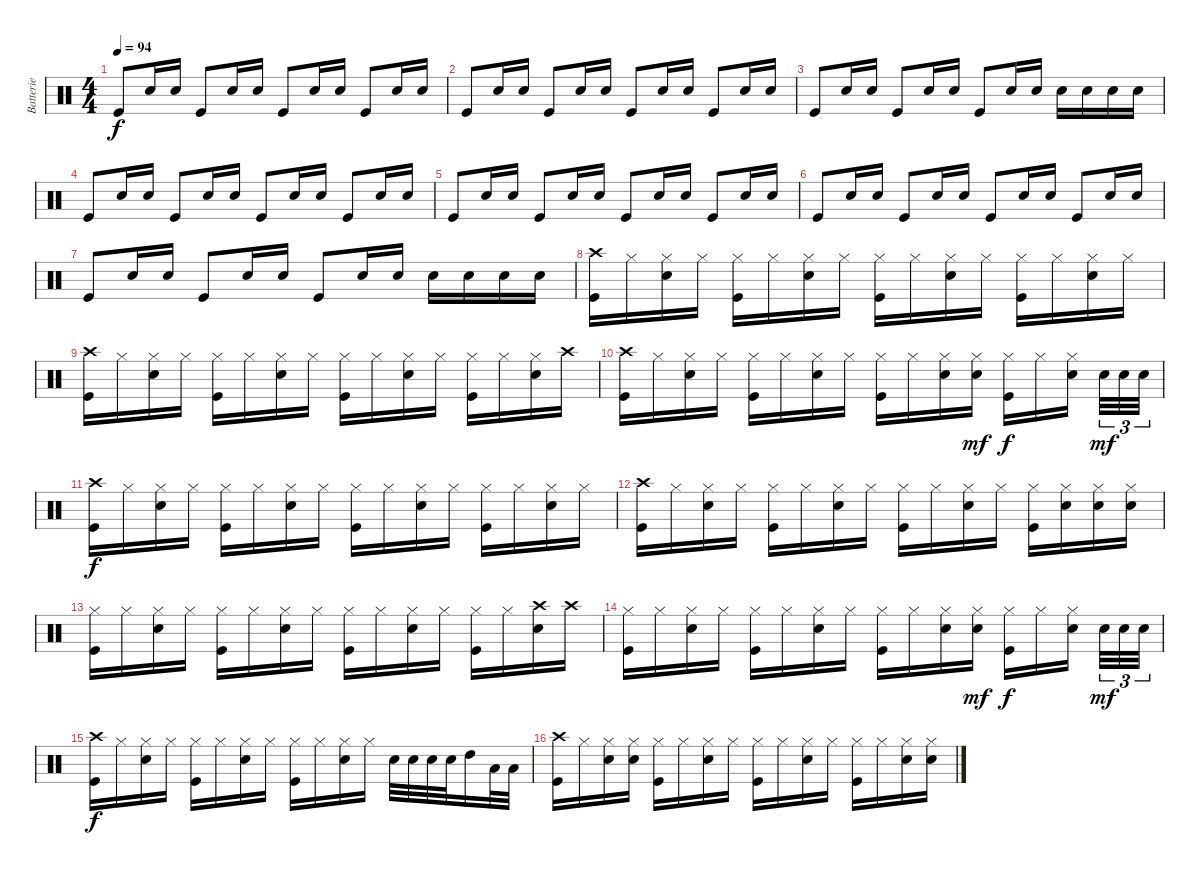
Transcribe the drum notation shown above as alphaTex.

\track ("Batterie" "Batterie") {instrument percussion}
\staff {score}
\articulation defaults
\ts (4 4)
\tempo 94
\clef neutral
\ks c "Kick (hit)".8{dy f} "Snare (hit) 2".16 "Snare (hit) 2".16 "Kick (hit)".8 "Snare (hit) 2".16 "Snare (hit) 2".16 "Kick (hit)".8 "Snare (hit) 2".16 "Snare (hit) 2".16 "Kick (hit)".8 "Snare (hit) 2".16 "Snare (hit) 2".16
|
"Kick (hit)".8 "Snare (hit) 2".16 "Snare (hit) 2".16 "Kick (hit)".8 "Snare (hit) 2".16 "Snare (hit) 2".16 "Kick (hit)".8 "Snare (hit) 2".16 "Snare (hit) 2".16 "Kick (hit)".8 "Snare (hit) 2".16 "Snare (hit) 2".16 |
"Kick (hit)".8 "Snare (hit) 2".16 "Snare (hit) 2".16 "Kick (hit)".8 "Snare (hit) 2".16 "Snare (hit) 2".16 "Kick (hit)".8 "Snare (hit) 2".16 "Snare (hit) 2".16 "Snare (hit) 2".16 "Snare (hit) 2".16 "Snare (hit) 2".16 "Snare (hit) 2".16 |
"Kick (hit)".8 "Snare (hit) 2".16 "Snare (hit) 2".16 "Kick (hit)".8 "Snare (hit) 2".16 "Snare (hit) 2".16 "Kick (hit)".8 "Snare (hit) 2".16 "Snare (hit) 2".16 "Kick (hit)".8 "Snare (hit) 2".16 "Snare (hit) 2".16 |
"Kick (hit)".8 "Snare (hit) 2".16 "Snare (hit) 2".16 "Kick (hit)".8 "Snare (hit) 2".16 "Snare (hit) 2".16 "Kick (hit)".8 "Snare (hit) 2".16 "Snare (hit) 2".16 "Kick (hit)".8 "Snare (hit) 2".16 "Snare (hit) 2".16 |
"Kick (hit)".8 "Snare (hit) 2".16 "Snare (hit) 2".16 "Kick (hit)".8 "Snare (hit) 2".16 "Snare (hit) 2".16 "Kick (hit)".8 "Snare (hit) 2".16 "Snare (hit) 2".16 "Kick (hit)".8 "Snare (hit) 2".16 "Snare (hit) 2".16 |
"Kick (hit)".8 "Snare (hit) 2".16 "Snare (hit) 2".16 "Kick (hit)".8 "Snare (hit) 2".16 "Snare (hit) 2".16 "Kick (hit)".8 "Snare (hit) 2".16 "Snare (hit) 2".16 "Snare (hit) 2".16 "Snare (hit) 2".16 "Snare (hit) 2".16 "Snare (hit) 2".16 |
("Crash high (hit)" "Kick (hit)").16 "Hi-Hat (closed)".16 ("Hi-Hat (closed)" "Snare (hit) 2").16 "Hi-Hat (closed)".16 ("Hi-Hat (closed)" "Kick (hit)").16 "Hi-Hat (closed)".16 ("Hi-Hat (closed)" "Snare (hit) 2").16 "Hi-Hat (closed)".16 ("Hi-Hat (closed)" "Kick (hit)").16 "Hi-Hat (closed)".16 ("Hi-Hat (closed)" "Snare (hit) 2").16 "Hi-Hat (closed)".16 ("Hi-Hat (closed)" "Kick (hit)").16 "Hi-Hat (closed)".16 ("Hi-Hat (closed)" "Snare (hit) 2").16 "Hi-Hat (closed)".16 |
("Crash high (hit)" "Kick (hit)").16 "Hi-Hat (closed)".16 ("Hi-Hat (closed)" "Snare (hit) 2").16 "Hi-Hat (closed)".16 ("Hi-Hat (closed)" "Kick (hit)").16 "Hi-Hat (closed)".16 ("Hi-Hat (closed)" "Snare (hit) 2").16 "Hi-Hat (closed)".16 ("Hi-Hat (closed)" "Kick (hit)").16 "Hi-Hat (closed)".16 ("Hi-Hat (closed)" "Snare (hit) 2").16 "Hi-Hat (closed)".16 ("Hi-Hat (closed)" "Kick (hit)").16 "Hi-Hat (closed)".16 ("Hi-Hat (closed)" "Snare (hit) 2").16 "Crash high (hit)".16 |
("Crash high (hit)" "Kick (hit)").16 "Hi-Hat (closed)".16 ("Hi-Hat (closed)" "Snare (hit) 2").16 "Hi-Hat (closed)".16 ("Hi-Hat (closed)" "Kick (hit)").16 "Hi-Hat (closed)".16 ("Hi-Hat (closed)" "Snare (hit) 2").16 "Hi-Hat (closed)".16 ("Hi-Hat (closed)" "Kick (hit)").16 "Hi-Hat (closed)".16 ("Hi-Hat (closed)" "Snare (hit) 2").16 ("Hi-Hat (closed)" "Snare (hit) 2").16{dy mf} ("Hi-Hat (closed)" "Kick (hit)").16{dy f} "Hi-Hat (closed)".16 ("Hi-Hat (closed)" "Snare (hit) 2").16 "Snare (hit) 2".32{tu (3 2) dy mf} "Snare (hit) 2".32{tu (3 2)} "Snare (hit) 2".32{tu (3 2)} |
("Crash high (hit)" "Kick (hit)").16{dy f} "Hi-Hat (closed)".16 ("Hi-Hat (closed)" "Snare (hit) 2").16 "Hi-Hat (closed)".16 ("Hi-Hat (closed)" "Kick (hit)").16 "Hi-Hat (closed)".16 ("Hi-Hat (closed)" "Snare (hit) 2").16 "Hi-Hat (closed)".16 ("Hi-Hat (closed)" "Kick (hit)").16 "Hi-Hat (closed)".16 ("Hi-Hat (closed)" "Snare (hit) 2").16 "Hi-Hat (closed)".16 ("Hi-Hat (closed)" "Kick (hit)").16 "Hi-Hat (closed)".16 ("Hi-Hat (closed)" "Snare (hit) 2").16 "Hi-Hat (closed)".16 |
("Crash high (hit)" "Kick (hit)").16 "Hi-Hat (closed)".16 ("Hi-Hat (closed)" "Snare (hit) 2").16 "Hi-Hat (closed)".16 ("Hi-Hat (closed)" "Kick (hit)").16 "Hi-Hat (closed)".16 ("Hi-Hat (closed)" "Snare (hit) 2").16 "Hi-Hat (closed)".16 ("Hi-Hat (closed)" "Kick (hit)").16 "Hi-Hat (closed)".16 ("Hi-Hat (closed)" "Snare (hit) 2").16 "Hi-Hat (closed)".16 ("Hi-Hat (closed)" "Kick (hit)").16 ("Hi-Hat (closed)" "Snare (hit) 2").16 ("Hi-Hat (closed)" "Snare (hit) 2").16 ("Hi-Hat (closed)" "Snare (hit) 2").16 |
("Hi-Hat (closed)" "Kick (hit)").16 "Hi-Hat (closed)".16 ("Hi-Hat (closed)" "Snare (hit) 2").16 "Hi-Hat (closed)".16 ("Hi-Hat (closed)" "Kick (hit)").16 "Hi-Hat (closed)".16 ("Hi-Hat (closed)" "Snare (hit) 2").16 "Hi-Hat (closed)".16 ("Hi-Hat (closed)" "Kick (hit)").16 "Hi-Hat (closed)".16 ("Hi-Hat (closed)" "Snare (hit) 2").16 "Hi-Hat (closed)".16 ("Hi-Hat (closed)" "Kick (hit)").16 "Hi-Hat (closed)".16 ("Crash high (hit)" "Snare (hit) 2").16 "Crash high (hit)".16 |
("Hi-Hat (closed)" "Kick (hit)").16 "Hi-Hat (closed)".16 ("Hi-Hat (closed)" "Snare (hit) 2").16 "Hi-Hat (closed)".16 ("Hi-Hat (closed)" "Kick (hit)").16 "Hi-Hat (closed)".16 ("Hi-Hat (closed)" "Snare (hit) 2").16 "Hi-Hat (closed)".16 ("Hi-Hat (closed)" "Kick (hit)").16 "Hi-Hat (closed)".16 ("Hi-Hat (closed)" "Snare (hit) 2").16 ("Hi-Hat (closed)" "Snare (hit) 2").16{dy mf} ("Hi-Hat (closed)" "Kick (hit)").16{dy f} "Hi-Hat (closed)".16 ("Hi-Hat (closed)" "Snare (hit) 2").16 "Snare (hit) 2".32{tu (3 2) dy mf} "Snare (hit) 2".32{tu (3 2)} "Snare (hit) 2".32{tu (3 2)} |
("Crash high (hit)" "Kick (hit)").16{dy f} "Hi-Hat (closed)".16 ("Hi-Hat (closed)" "Snare (hit) 2").16 "Hi-Hat (closed)".16 ("Hi-Hat (closed)" "Kick (hit)").16 "Hi-Hat (closed)".16 ("Hi-Hat (closed)" "Snare (hit) 2").16 "Hi-Hat (closed)".16 ("Hi-Hat (closed)" "Kick (hit)").16 "Hi-Hat (closed)".16 ("Hi-Hat (closed)" "Snare (hit) 2").16 "Hi-Hat (closed)".16 "Snare (hit) 2".32 "Snare (hit) 2".32 "Snare (hit) 2".32 "Snare (hit) 2".32 "High Tom (hit)".16 "Low Floor Tom (hit)".32 "Low Floor Tom (hit)".32 |
("Crash high (hit)" "Kick (hit)").16 "Hi-Hat (closed)".16 ("Hi-Hat (closed)" "Snare (hit) 2").16 ("Snare (hit) 2" "Hi-Hat (closed)").16 ("Hi-Hat (closed)" "Kick (hit)").16 "Hi-Hat (closed)".16 ("Hi-Hat (closed)" "Snare (hit) 2").16 "Hi-Hat (closed)".16 ("Hi-Hat (closed)" "Kick (hit)").16 "Hi-Hat (closed)".16 ("Hi-Hat (closed)" "Snare (hit) 2").16 "Hi-Hat (closed)".16 ("Hi-Hat (closed)" "Kick (hit)").16 "Hi-Hat (closed)".16 ("Hi-Hat (closed)" "Snare (hit) 2").16 ("Hi-Hat (closed)" "Snare (hit) 2").16
